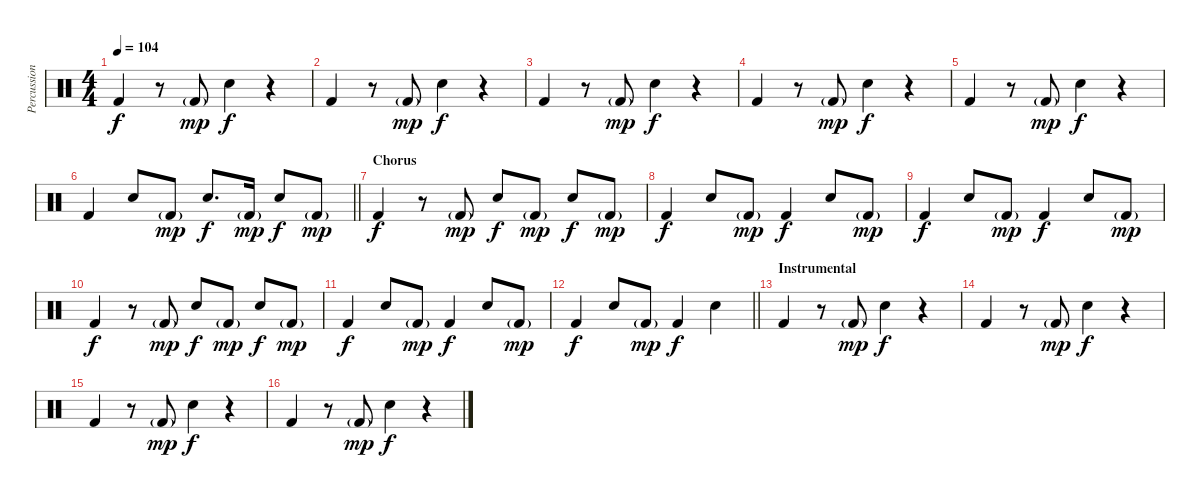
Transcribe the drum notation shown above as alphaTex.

\track ("Percussion" "Percussion") {instrument percussion}
\staff {score}
\articulation defaults
\ts (4 4)
\tempo 104
\clef neutral
\ks c "Kick (hit) 2".4{dy f}
r.8 "Kick (hit) 2"{g}.8{dy mp} "Snare (hit) 2".4{dy f} r.4 |
"Kick (hit) 2".4 r.8 "Kick (hit) 2"{g}.8{dy mp} "Snare (hit) 2".4{dy f} r.4 |
"Kick (hit) 2".4 r.8 "Kick (hit) 2"{g}.8{dy mp} "Snare (hit) 2".4{dy f} r.4 |
"Kick (hit) 2".4 r.8 "Kick (hit) 2"{g}.8{dy mp} "Snare (hit) 2".4{dy f} r.4 |
"Kick (hit) 2".4 r.8 "Kick (hit) 2"{g}.8{dy mp} "Snare (hit) 2".4{dy f} r.4 |
\barLineRight lightlight "Kick (hit) 2".4 "Snare (hit) 2".8 "Kick (hit) 2"{g}.8{dy mp} "Snare (hit) 2".8{d dy f} "Kick (hit) 2"{g}.16{dy mp} "Snare (hit) 2".8{dy f} "Kick (hit) 2"{g}.8{dy mp}
|
\section ("" "Chorus")
"Kick (hit) 2".4{dy f} r.8 "Kick (hit) 2"{g}.8{dy mp} "Snare (hit) 2".8{dy f} "Kick (hit) 2"{g}.8{dy mp} "Snare (hit) 2".8{dy f} "Kick (hit) 2"{g}.8{dy mp} |
"Kick (hit) 2".4{dy f} "Snare (hit) 2".8 "Kick (hit) 2"{g}.8{dy mp} "Kick (hit) 2".4{dy f} "Snare (hit) 2".8 "Kick (hit) 2"{g}.8{dy mp} |
"Kick (hit) 2".4{dy f} "Snare (hit) 2".8 "Kick (hit) 2"{g}.8{dy mp} "Kick (hit) 2".4{dy f} "Snare (hit) 2".8 "Kick (hit) 2"{g}.8{dy mp} |
"Kick (hit) 2".4{dy f} r.8 "Kick (hit) 2"{g}.8{dy mp} "Snare (hit) 2".8{dy f} "Kick (hit) 2"{g}.8{dy mp} "Snare (hit) 2".8{dy f} "Kick (hit) 2"{g}.8{dy mp} |
"Kick (hit) 2".4{dy f} "Snare (hit) 2".8 "Kick (hit) 2"{g}.8{dy mp} "Kick (hit) 2".4{dy f} "Snare (hit) 2".8 "Kick (hit) 2"{g}.8{dy mp} |
\barLineRight lightlight "Kick (hit) 2".4{dy f} "Snare (hit) 2".8 "Kick (hit) 2"{g}.8{dy mp} "Kick (hit) 2".4{dy f} "Snare (hit) 2".4
|
\section ("" "Instrumental")
"Kick (hit) 2".4 r.8 "Kick (hit) 2"{g}.8{dy mp} "Snare (hit) 2".4{dy f} r.4 |
"Kick (hit) 2".4 r.8 "Kick (hit) 2"{g}.8{dy mp} "Snare (hit) 2".4{dy f} r.4 |
"Kick (hit) 2".4 r.8 "Kick (hit) 2"{g}.8{dy mp} "Snare (hit) 2".4{dy f} r.4 |
"Kick (hit) 2".4 r.8 "Kick (hit) 2"{g}.8{dy mp} "Snare (hit) 2".4{dy f} r.4
